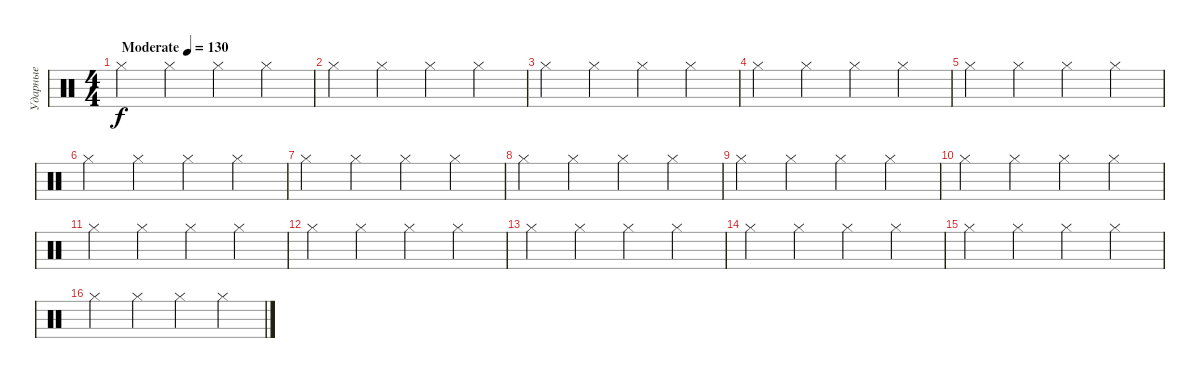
\track ("Ударные" "Ударные") {instrument percussion}
\staff {score}
\articulation defaults
\ts (4 4)
\tempo (130 "Moderate")
\clef neutral
\ks c "Hi-Hat (closed)".2{dy f} "Hi-Hat (closed)".2 "Hi-Hat (closed)".2 "Hi-Hat (closed)".2
|
"Hi-Hat (closed)".2 "Hi-Hat (closed)".2 "Hi-Hat (closed)".2 "Hi-Hat (closed)".2 |
"Hi-Hat (closed)".2 "Hi-Hat (closed)".2 "Hi-Hat (closed)".2 "Hi-Hat (closed)".2 |
"Hi-Hat (closed)".2 "Hi-Hat (closed)".2 "Hi-Hat (closed)".2 "Hi-Hat (closed)".2 |
"Hi-Hat (closed)".2 "Hi-Hat (closed)".2 "Hi-Hat (closed)".2 "Hi-Hat (closed)".2 |
"Hi-Hat (closed)".2 "Hi-Hat (closed)".2 "Hi-Hat (closed)".2 "Hi-Hat (closed)".2 |
"Hi-Hat (closed)".2 "Hi-Hat (closed)".2 "Hi-Hat (closed)".2 "Hi-Hat (closed)".2 |
"Hi-Hat (closed)".2 "Hi-Hat (closed)".2 "Hi-Hat (closed)".2 "Hi-Hat (closed)".2 |
"Hi-Hat (closed)".2 "Hi-Hat (closed)".2 "Hi-Hat (closed)".2 "Hi-Hat (closed)".2 |
"Hi-Hat (closed)".2 "Hi-Hat (closed)".2 "Hi-Hat (closed)".2 "Hi-Hat (closed)".2 |
"Hi-Hat (closed)".2 "Hi-Hat (closed)".2 "Hi-Hat (closed)".2 "Hi-Hat (closed)".2 |
"Hi-Hat (closed)".2 "Hi-Hat (closed)".2 "Hi-Hat (closed)".2 "Hi-Hat (closed)".2 |
"Hi-Hat (closed)".2 "Hi-Hat (closed)".2 "Hi-Hat (closed)".2 "Hi-Hat (closed)".2 |
"Hi-Hat (closed)".2 "Hi-Hat (closed)".2 "Hi-Hat (closed)".2 "Hi-Hat (closed)".2 |
"Hi-Hat (closed)".2 "Hi-Hat (closed)".2 "Hi-Hat (closed)".2 "Hi-Hat (closed)".2 |
"Hi-Hat (closed)".2 "Hi-Hat (closed)".2 "Hi-Hat (closed)".2 "Hi-Hat (closed)".2
